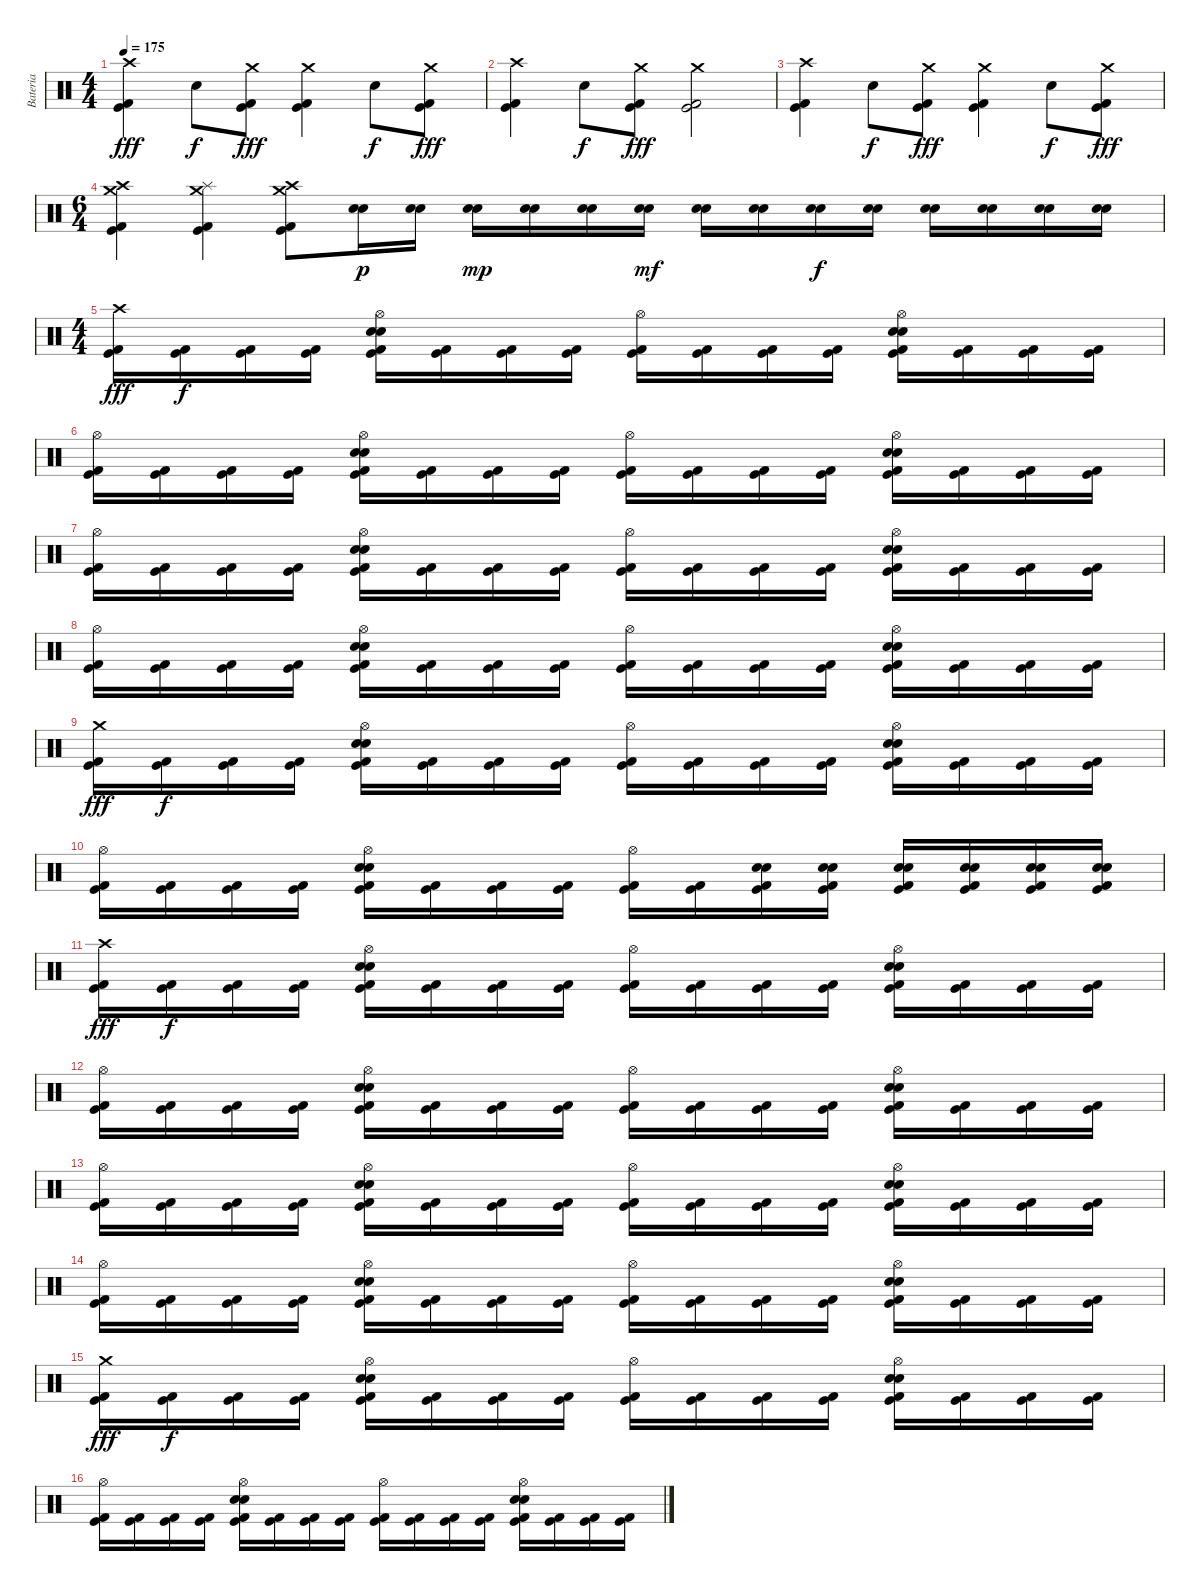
\track ("Bateria" "Bateria") {instrument percussion}
\staff {score}
\articulation defaults
\ts (4 4)
\tempo 175
\clef neutral
\ks c
("Crash high (hit)" "Kick (hit) 2" "Kick (hit)").4{dy fff} "Snare (hit)"{x}.8{dy f} ("Crash medium (hit)" "Kick (hit) 2" "Kick (hit)").8{dy fff} ("Crash medium (hit)" "Kick (hit) 2" "Kick (hit)").4 "Snare (hit)"{x}.8{dy f} ("Crash medium (hit)" "Kick (hit) 2" "Kick (hit)").8{dy fff} |
("Crash high (hit)" "Kick (hit) 2" "Kick (hit)").4 "Snare (hit)"{x}.8{dy f} ("Crash medium (hit)" "Kick (hit) 2" "Kick (hit)").8{dy fff} ("Crash medium (hit)" "Kick (hit) 2" "Kick (hit)").2 |
("Crash high (hit)" "Kick (hit) 2" "Kick (hit)").4 "Snare (hit)"{x}.8{dy f} ("Crash medium (hit)" "Kick (hit) 2" "Kick (hit)").8{dy fff} ("Crash medium (hit)" "Kick (hit) 2" "Kick (hit)").4 "Snare (hit)"{x}.8{dy f} ("Crash medium (hit)" "Kick (hit) 2" "Kick (hit)").8{dy fff} |
\ts (6 4)
("Crash high (hit)" "Crash medium (hit)" "Kick (hit) 2" "Kick (hit)").4 ("Crash medium (hit)" "Splash (hit)" "Kick (hit) 2" "Kick (hit)").4 ("Crash high (hit)" "Crash medium (hit)" "Kick (hit) 2" "Kick (hit)").8 ("Electric Snare (hit)" "Snare (hit) 2").16{dy p} ("Electric Snare (hit)" "Snare (hit) 2").16 ("Electric Snare (hit)" "Snare (hit) 2").16{dy mp} ("Electric Snare (hit)" "Snare (hit) 2").16 ("Electric Snare (hit)" "Snare (hit) 2").16 ("Electric Snare (hit)" "Snare (hit) 2").16{dy mf} ("Electric Snare (hit)" "Snare (hit) 2").16 ("Electric Snare (hit)" "Snare (hit) 2").16 ("Electric Snare (hit)" "Snare (hit) 2").16{dy f} ("Electric Snare (hit)" "Snare (hit) 2").16 ("Electric Snare (hit)" "Snare (hit) 2").16 ("Electric Snare (hit)" "Snare (hit) 2").16 ("Electric Snare (hit)" "Snare (hit) 2").16 ("Electric Snare (hit)" "Snare (hit) 2").16 |
\ts (4 4)
("Crash high (hit)" "Kick (hit) 2" "Kick (hit)").16{dy fff} ("Kick (hit) 2" "Kick (hit)").16{dy f} ("Kick (hit) 2" "Kick (hit)").16 ("Kick (hit) 2" "Kick (hit)").16 ("Hi-Hat (open)" "Electric Snare (hit)" "Snare (hit) 2" "Kick (hit) 2" "Kick (hit)").16 ("Kick (hit) 2" "Kick (hit)").16 ("Kick (hit) 2" "Kick (hit)").16 ("Kick (hit) 2" "Kick (hit)").16 ("Hi-Hat (open)" "Kick (hit) 2" "Kick (hit)").16 ("Kick (hit) 2" "Kick (hit)").16 ("Kick (hit) 2" "Kick (hit)").16 ("Kick (hit) 2" "Kick (hit)").16 ("Hi-Hat (open)" "Electric Snare (hit)" "Snare (hit) 2" "Kick (hit) 2" "Kick (hit)").16 ("Kick (hit) 2" "Kick (hit)").16 ("Kick (hit) 2" "Kick (hit)").16 ("Kick (hit) 2" "Kick (hit)").16 |
("Hi-Hat (open)" "Kick (hit) 2" "Kick (hit)").16 ("Kick (hit) 2" "Kick (hit)").16 ("Kick (hit) 2" "Kick (hit)").16 ("Kick (hit) 2" "Kick (hit)").16 ("Hi-Hat (open)" "Electric Snare (hit)" "Snare (hit) 2" "Kick (hit) 2" "Kick (hit)").16 ("Kick (hit) 2" "Kick (hit)").16 ("Kick (hit) 2" "Kick (hit)").16 ("Kick (hit) 2" "Kick (hit)").16 ("Hi-Hat (open)" "Kick (hit) 2" "Kick (hit)").16 ("Kick (hit) 2" "Kick (hit)").16 ("Kick (hit) 2" "Kick (hit)").16 ("Kick (hit) 2" "Kick (hit)").16 ("Hi-Hat (open)" "Electric Snare (hit)" "Snare (hit) 2" "Kick (hit) 2" "Kick (hit)").16 ("Kick (hit) 2" "Kick (hit)").16 ("Kick (hit) 2" "Kick (hit)").16 ("Kick (hit) 2" "Kick (hit)").16 |
("Hi-Hat (open)" "Kick (hit) 2" "Kick (hit)").16 ("Kick (hit) 2" "Kick (hit)").16 ("Kick (hit) 2" "Kick (hit)").16 ("Kick (hit) 2" "Kick (hit)").16 ("Hi-Hat (open)" "Electric Snare (hit)" "Snare (hit) 2" "Kick (hit) 2" "Kick (hit)").16 ("Kick (hit) 2" "Kick (hit)").16 ("Kick (hit) 2" "Kick (hit)").16 ("Kick (hit) 2" "Kick (hit)").16 ("Hi-Hat (open)" "Kick (hit) 2" "Kick (hit)").16 ("Kick (hit) 2" "Kick (hit)").16 ("Kick (hit) 2" "Kick (hit)").16 ("Kick (hit) 2" "Kick (hit)").16 ("Hi-Hat (open)" "Electric Snare (hit)" "Snare (hit) 2" "Kick (hit) 2" "Kick (hit)").16 ("Kick (hit) 2" "Kick (hit)").16 ("Kick (hit) 2" "Kick (hit)").16 ("Kick (hit) 2" "Kick (hit)").16 |
("Hi-Hat (open)" "Kick (hit) 2" "Kick (hit)").16 ("Kick (hit) 2" "Kick (hit)").16 ("Kick (hit) 2" "Kick (hit)").16 ("Kick (hit) 2" "Kick (hit)").16 ("Hi-Hat (open)" "Electric Snare (hit)" "Snare (hit) 2" "Kick (hit) 2" "Kick (hit)").16 ("Kick (hit) 2" "Kick (hit)").16 ("Kick (hit) 2" "Kick (hit)").16 ("Kick (hit) 2" "Kick (hit)").16 ("Hi-Hat (open)" "Kick (hit) 2" "Kick (hit)").16 ("Kick (hit) 2" "Kick (hit)").16 ("Kick (hit) 2" "Kick (hit)").16 ("Kick (hit) 2" "Kick (hit)").16 ("Hi-Hat (open)" "Electric Snare (hit)" "Snare (hit) 2" "Kick (hit) 2" "Kick (hit)").16 ("Kick (hit) 2" "Kick (hit)").16 ("Kick (hit) 2" "Kick (hit)").16 ("Kick (hit) 2" "Kick (hit)").16 |
("Crash medium (hit)" "Kick (hit) 2" "Kick (hit)").16{dy fff} ("Kick (hit) 2" "Kick (hit)").16{dy f} ("Kick (hit) 2" "Kick (hit)").16 ("Kick (hit) 2" "Kick (hit)").16 ("Hi-Hat (open)" "Electric Snare (hit)" "Snare (hit) 2" "Kick (hit) 2" "Kick (hit)").16 ("Kick (hit) 2" "Kick (hit)").16 ("Kick (hit) 2" "Kick (hit)").16 ("Kick (hit) 2" "Kick (hit)").16 ("Hi-Hat (open)" "Kick (hit) 2" "Kick (hit)").16 ("Kick (hit) 2" "Kick (hit)").16 ("Kick (hit) 2" "Kick (hit)").16 ("Kick (hit) 2" "Kick (hit)").16 ("Hi-Hat (open)" "Electric Snare (hit)" "Snare (hit) 2" "Kick (hit) 2" "Kick (hit)").16 ("Kick (hit) 2" "Kick (hit)").16 ("Kick (hit) 2" "Kick (hit)").16 ("Kick (hit) 2" "Kick (hit)").16 |
("Hi-Hat (open)" "Kick (hit) 2" "Kick (hit)").16 ("Kick (hit) 2" "Kick (hit)").16 ("Kick (hit) 2" "Kick (hit)").16 ("Kick (hit) 2" "Kick (hit)").16 ("Hi-Hat (open)" "Electric Snare (hit)" "Snare (hit) 2" "Kick (hit) 2" "Kick (hit)").16 ("Kick (hit) 2" "Kick (hit)").16 ("Kick (hit) 2" "Kick (hit)").16 ("Kick (hit) 2" "Kick (hit)").16 ("Hi-Hat (open)" "Kick (hit) 2" "Kick (hit)").16 ("Kick (hit) 2" "Kick (hit)").16 ("Electric Snare (hit)" "Snare (hit) 2" "Kick (hit) 2" "Kick (hit)").16 ("Electric Snare (hit)" "Snare (hit) 2" "Kick (hit) 2" "Kick (hit)").16 ("Electric Snare (hit)" "Snare (hit) 2" "Kick (hit) 2" "Kick (hit)").16 ("Electric Snare (hit)" "Snare (hit) 2" "Kick (hit) 2" "Kick (hit)").16 ("Electric Snare (hit)" "Snare (hit) 2" "Kick (hit) 2" "Kick (hit)").16 ("Electric Snare (hit)" "Snare (hit) 2" "Kick (hit) 2" "Kick (hit)").16 |
("Crash high (hit)" "Kick (hit) 2" "Kick (hit)").16{dy fff} ("Kick (hit) 2" "Kick (hit)").16{dy f} ("Kick (hit) 2" "Kick (hit)").16 ("Kick (hit) 2" "Kick (hit)").16 ("Hi-Hat (open)" "Electric Snare (hit)" "Snare (hit) 2" "Kick (hit) 2" "Kick (hit)").16 ("Kick (hit) 2" "Kick (hit)").16 ("Kick (hit) 2" "Kick (hit)").16 ("Kick (hit) 2" "Kick (hit)").16 ("Hi-Hat (open)" "Kick (hit) 2" "Kick (hit)").16 ("Kick (hit) 2" "Kick (hit)").16 ("Kick (hit) 2" "Kick (hit)").16 ("Kick (hit) 2" "Kick (hit)").16 ("Hi-Hat (open)" "Electric Snare (hit)" "Snare (hit) 2" "Kick (hit) 2" "Kick (hit)").16 ("Kick (hit) 2" "Kick (hit)").16 ("Kick (hit) 2" "Kick (hit)").16 ("Kick (hit) 2" "Kick (hit)").16 |
("Hi-Hat (open)" "Kick (hit) 2" "Kick (hit)").16 ("Kick (hit) 2" "Kick (hit)").16 ("Kick (hit) 2" "Kick (hit)").16 ("Kick (hit) 2" "Kick (hit)").16 ("Hi-Hat (open)" "Electric Snare (hit)" "Snare (hit) 2" "Kick (hit) 2" "Kick (hit)").16 ("Kick (hit) 2" "Kick (hit)").16 ("Kick (hit) 2" "Kick (hit)").16 ("Kick (hit) 2" "Kick (hit)").16 ("Hi-Hat (open)" "Kick (hit) 2" "Kick (hit)").16 ("Kick (hit) 2" "Kick (hit)").16 ("Kick (hit) 2" "Kick (hit)").16 ("Kick (hit) 2" "Kick (hit)").16 ("Hi-Hat (open)" "Electric Snare (hit)" "Snare (hit) 2" "Kick (hit) 2" "Kick (hit)").16 ("Kick (hit) 2" "Kick (hit)").16 ("Kick (hit) 2" "Kick (hit)").16 ("Kick (hit) 2" "Kick (hit)").16 |
("Hi-Hat (open)" "Kick (hit) 2" "Kick (hit)").16 ("Kick (hit) 2" "Kick (hit)").16 ("Kick (hit) 2" "Kick (hit)").16 ("Kick (hit) 2" "Kick (hit)").16 ("Hi-Hat (open)" "Electric Snare (hit)" "Snare (hit) 2" "Kick (hit) 2" "Kick (hit)").16 ("Kick (hit) 2" "Kick (hit)").16 ("Kick (hit) 2" "Kick (hit)").16 ("Kick (hit) 2" "Kick (hit)").16 ("Hi-Hat (open)" "Kick (hit) 2" "Kick (hit)").16 ("Kick (hit) 2" "Kick (hit)").16 ("Kick (hit) 2" "Kick (hit)").16 ("Kick (hit) 2" "Kick (hit)").16 ("Hi-Hat (open)" "Electric Snare (hit)" "Snare (hit) 2" "Kick (hit) 2" "Kick (hit)").16 ("Kick (hit) 2" "Kick (hit)").16 ("Kick (hit) 2" "Kick (hit)").16 ("Kick (hit) 2" "Kick (hit)").16 |
("Hi-Hat (open)" "Kick (hit) 2" "Kick (hit)").16 ("Kick (hit) 2" "Kick (hit)").16 ("Kick (hit) 2" "Kick (hit)").16 ("Kick (hit) 2" "Kick (hit)").16 ("Hi-Hat (open)" "Electric Snare (hit)" "Snare (hit) 2" "Kick (hit) 2" "Kick (hit)").16 ("Kick (hit) 2" "Kick (hit)").16 ("Kick (hit) 2" "Kick (hit)").16 ("Kick (hit) 2" "Kick (hit)").16 ("Hi-Hat (open)" "Kick (hit) 2" "Kick (hit)").16 ("Kick (hit) 2" "Kick (hit)").16 ("Kick (hit) 2" "Kick (hit)").16 ("Kick (hit) 2" "Kick (hit)").16 ("Hi-Hat (open)" "Electric Snare (hit)" "Snare (hit) 2" "Kick (hit) 2" "Kick (hit)").16 ("Kick (hit) 2" "Kick (hit)").16 ("Kick (hit) 2" "Kick (hit)").16 ("Kick (hit) 2" "Kick (hit)").16 |
("Crash medium (hit)" "Kick (hit) 2" "Kick (hit)").16{dy fff} ("Kick (hit) 2" "Kick (hit)").16{dy f} ("Kick (hit) 2" "Kick (hit)").16 ("Kick (hit) 2" "Kick (hit)").16 ("Hi-Hat (open)" "Electric Snare (hit)" "Snare (hit) 2" "Kick (hit) 2" "Kick (hit)").16 ("Kick (hit) 2" "Kick (hit)").16 ("Kick (hit) 2" "Kick (hit)").16 ("Kick (hit) 2" "Kick (hit)").16 ("Hi-Hat (open)" "Kick (hit) 2" "Kick (hit)").16 ("Kick (hit) 2" "Kick (hit)").16 ("Kick (hit) 2" "Kick (hit)").16 ("Kick (hit) 2" "Kick (hit)").16 ("Hi-Hat (open)" "Electric Snare (hit)" "Snare (hit) 2" "Kick (hit) 2" "Kick (hit)").16 ("Kick (hit) 2" "Kick (hit)").16 ("Kick (hit) 2" "Kick (hit)").16 ("Kick (hit) 2" "Kick (hit)").16 |
("Hi-Hat (open)" "Kick (hit) 2" "Kick (hit)").16 ("Kick (hit) 2" "Kick (hit)").16 ("Kick (hit) 2" "Kick (hit)").16 ("Kick (hit) 2" "Kick (hit)").16 ("Hi-Hat (open)" "Electric Snare (hit)" "Snare (hit) 2" "Kick (hit) 2" "Kick (hit)").16 ("Kick (hit) 2" "Kick (hit)").16 ("Kick (hit) 2" "Kick (hit)").16 ("Kick (hit) 2" "Kick (hit)").16 ("Hi-Hat (open)" "Kick (hit) 2" "Kick (hit)").16 ("Kick (hit) 2" "Kick (hit)").16 ("Kick (hit) 2" "Kick (hit)").16 ("Kick (hit) 2" "Kick (hit)").16 ("Hi-Hat (open)" "Electric Snare (hit)" "Snare (hit) 2" "Kick (hit) 2" "Kick (hit)").16 ("Kick (hit) 2" "Kick (hit)").16 ("Kick (hit) 2" "Kick (hit)").16 ("Kick (hit) 2" "Kick (hit)").16
